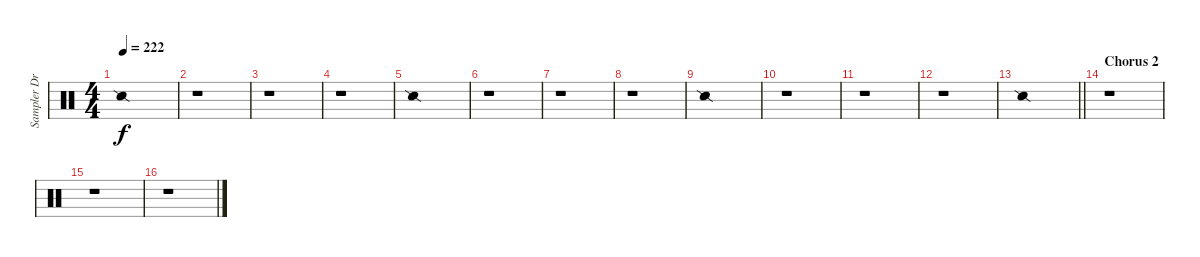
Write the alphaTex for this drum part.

\track ("Sampler Drums 2" "Sampler Dr") {instrument percussion}
\staff {score}
\articulation defaults
\ts (4 4)
\tempo 222
\clef neutral
\ks c "Snare (side stick) 2".1{dy f}
|
r.1 |
r.1 |
r.1 |
"Snare (side stick) 2".1 |
r.1 |
r.1 |
r.1 |
"Snare (side stick) 2".1 |
r.1 |
r.1 |
r.1 |
\barLineRight lightlight "Snare (side stick) 2".1
|
\section ("" "Chorus 2")
r.1 |
r.1 |
r.1
